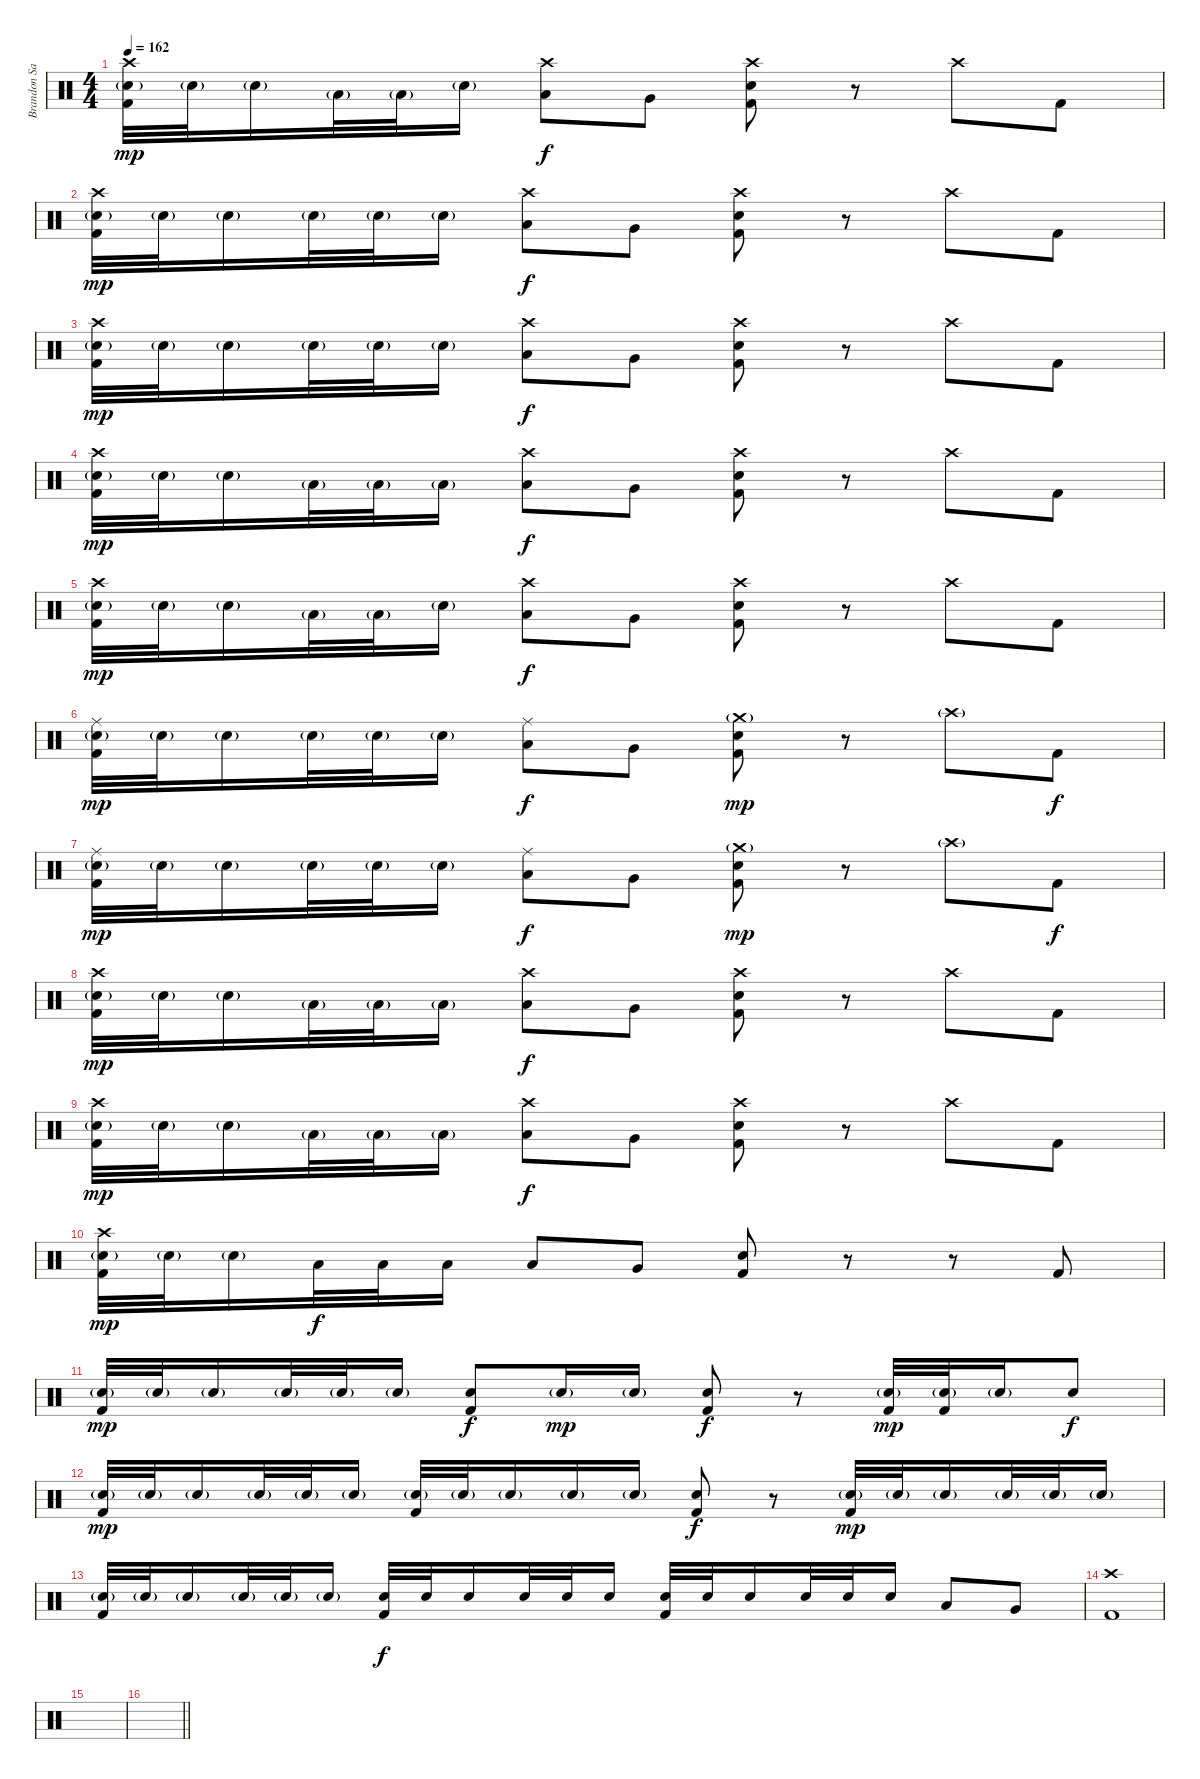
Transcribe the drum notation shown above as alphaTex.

\track ("Brandon Saller" "Brandon Sa") {instrument percussion}
\staff {score}
\articulation defaults
\ts (4 4)
\tempo 162
\clef neutral
\ks c
("Crash high (hit)" "Electric Snare (hit)"{g} "Kick (hit) 2").32{dy mp} "Electric Snare (hit)"{g}.32 "Electric Snare (hit)"{g}.16 "Low Floor Tom (hit)"{g}.32 "Low Floor Tom (hit)"{g}.32 "Snare (hit)"{g}.16 ("Crash high (hit)" "Low Tom (hit)").8{dy f} "Very Low Tom (hit)".8 ("Crash high (hit)" "Electric Snare (hit)" "Kick (hit) 2").8 r.8 "Crash high (hit)".8 "Kick (hit) 2".8 |
("Crash high (hit)" "Electric Snare (hit)"{g} "Kick (hit) 2").32{dy mp} "Electric Snare (hit)"{g}.32 "Electric Snare (hit)"{g}.16 "Electric Snare (hit)"{g}.32 "Electric Snare (hit)"{g}.32 "Electric Snare (hit)"{g}.16 ("Crash high (hit)" "Low Tom (hit)").8{dy f} "Very Low Tom (hit)".8 ("Crash high (hit)" "Electric Snare (hit)" "Kick (hit) 2").8 r.8 "Crash high (hit)".8 "Kick (hit) 2".8 |
("Crash high (hit)" "Electric Snare (hit)"{g} "Kick (hit) 2").32{dy mp} "Electric Snare (hit)"{g}.32 "Electric Snare (hit)"{g}.16 "Electric Snare (hit)"{g}.32 "Electric Snare (hit)"{g}.32 "Electric Snare (hit)"{g}.16 ("Crash high (hit)" "Low Tom (hit)").8{dy f} "Very Low Tom (hit)".8 ("Crash high (hit)" "Electric Snare (hit)" "Kick (hit) 2").8 r.8 "Crash high (hit)".8 "Kick (hit) 2".8 |
("Crash high (hit)" "Electric Snare (hit)"{g} "Kick (hit) 2").32{dy mp} "Electric Snare (hit)"{g}.32 "Electric Snare (hit)"{g}.16 "Low Floor Tom (hit)"{g}.32 "Low Floor Tom (hit)"{g}.32 "Low Floor Tom (hit)"{g}.16 ("Crash high (hit)" "Low Tom (hit)").8{dy f} "Very Low Tom (hit)".8 ("Crash high (hit)" "Electric Snare (hit)" "Kick (hit) 2").8 r.8 "Crash high (hit)".8 "Kick (hit) 2".8 |
("Crash high (hit)" "Electric Snare (hit)"{g} "Kick (hit) 2").32{dy mp} "Electric Snare (hit)"{g}.32 "Electric Snare (hit)"{g}.16 "Low Floor Tom (hit)"{g}.32 "Low Floor Tom (hit)"{g}.32 "Snare (hit)"{g}.16 ("Crash high (hit)" "Low Tom (hit)").8{dy f} "Very Low Tom (hit)".8 ("Crash high (hit)" "Electric Snare (hit)" "Kick (hit) 2").8 r.8 "Crash high (hit)".8 "Kick (hit) 2".8 |
("Ride (middle)" "Electric Snare (hit)"{g} "Kick (hit) 2").32{dy mp} "Electric Snare (hit)"{g}.32 "Electric Snare (hit)"{g}.16 "Electric Snare (hit)"{g}.32 "Electric Snare (hit)"{g}.32 "Electric Snare (hit)"{g}.16 ("Ride (middle)" "Low Tom (hit)").8{dy f} "Very Low Tom (hit)".8 ("Crash medium (hit)"{g} "Electric Snare (hit)" "Kick (hit) 2").8{dy mp} r.8 "Crash high (hit)"{g}.8 "Kick (hit) 2".8{dy f} |
("Ride (middle)" "Electric Snare (hit)"{g} "Kick (hit) 2").32{dy mp} "Electric Snare (hit)"{g}.32 "Electric Snare (hit)"{g}.16 "Electric Snare (hit)"{g}.32 "Electric Snare (hit)"{g}.32 "Electric Snare (hit)"{g}.16 ("Ride (middle)" "Low Tom (hit)").8{dy f} "Very Low Tom (hit)".8 ("Crash medium (hit)"{g} "Electric Snare (hit)" "Kick (hit) 2").8{dy mp} r.8 "Crash high (hit)"{g}.8 "Kick (hit) 2".8{dy f} |
("Crash high (hit)" "Electric Snare (hit)"{g} "Kick (hit) 2").32{dy mp} "Electric Snare (hit)"{g}.32 "Electric Snare (hit)"{g}.16 "Low Floor Tom (hit)"{g}.32 "Low Floor Tom (hit)"{g}.32 "Low Floor Tom (hit)"{g}.16 ("Crash high (hit)" "Low Tom (hit)").8{dy f} "Very Low Tom (hit)".8 ("Crash high (hit)" "Electric Snare (hit)" "Kick (hit) 2").8 r.8 "Crash high (hit)".8 "Kick (hit) 2".8 |
("Crash high (hit)" "Electric Snare (hit)"{g} "Kick (hit) 2").32{dy mp} "Electric Snare (hit)"{g}.32 "Electric Snare (hit)"{g}.16 "Low Floor Tom (hit)"{g}.32 "Low Floor Tom (hit)"{g}.32 "Low Floor Tom (hit)"{g}.16 ("Crash high (hit)" "Low Tom (hit)").8{dy f} "Very Low Tom (hit)".8 ("Crash high (hit)" "Electric Snare (hit)" "Kick (hit) 2").8 r.8 "Crash high (hit)".8 "Kick (hit) 2".8 |
("Crash high (hit)" "Electric Snare (hit)"{g} "Kick (hit) 2").32{dy mp} "Electric Snare (hit)"{g}.32 "Electric Snare (hit)"{g}.16 "Low Floor Tom (hit)".32{dy f} "Low Floor Tom (hit)".32 "Low Floor Tom (hit)".16 "Low Tom (hit)".8 "Very Low Tom (hit)".8 ("Electric Snare (hit)" "Kick (hit) 2").8 r.8 r.8 "Kick (hit) 2".8 |
("Electric Snare (hit)"{g} "Kick (hit) 2").32{dy mp} "Electric Snare (hit)"{g}.32 "Electric Snare (hit)"{g}.16 "Electric Snare (hit)"{g}.32 "Electric Snare (hit)"{g}.32 "Electric Snare (hit)"{g}.16 ("Electric Snare (hit)" "Kick (hit) 2").8{dy f} "Electric Snare (hit)"{g}.16{dy mp} "Electric Snare (hit)"{g}.16 ("Electric Snare (hit)" "Kick (hit) 2").8{dy f} r.8 ("Electric Snare (hit)"{g} "Kick (hit) 2").32{dy mp} ("Electric Snare (hit)"{g} "Kick (hit) 2").32 "Electric Snare (hit)"{g}.16 "Electric Snare (hit)".8{dy f} |
("Electric Snare (hit)"{g} "Kick (hit) 2").32{dy mp} "Electric Snare (hit)"{g}.32 "Electric Snare (hit)"{g}.16 "Electric Snare (hit)"{g}.32 "Electric Snare (hit)"{g}.32 "Electric Snare (hit)"{g}.16 ("Electric Snare (hit)"{g} "Kick (hit) 2").32 "Electric Snare (hit)"{g}.32 "Electric Snare (hit)"{g}.16 "Electric Snare (hit)"{g}.16 "Electric Snare (hit)"{g}.16 ("Electric Snare (hit)" "Kick (hit) 2").8{dy f} r.8 ("Electric Snare (hit)"{g} "Kick (hit) 2").32{dy mp} "Electric Snare (hit)"{g}.32 "Electric Snare (hit)"{g}.16 "Electric Snare (hit)"{g}.32 "Electric Snare (hit)"{g}.32 "Electric Snare (hit)"{g}.16 |
("Electric Snare (hit)"{g} "Kick (hit) 2").32 "Electric Snare (hit)"{g}.32 "Electric Snare (hit)"{g}.16 "Electric Snare (hit)"{g}.32 "Electric Snare (hit)"{g}.32 "Electric Snare (hit)"{g}.16 ("Electric Snare (hit)" "Kick (hit) 2").32{dy f} "Electric Snare (hit)".32 "Electric Snare (hit)".16 "Electric Snare (hit)".32 "Electric Snare (hit)".32 "Electric Snare (hit)".16 ("Electric Snare (hit)" "Kick (hit) 2").32 "Electric Snare (hit)".32 "Electric Snare (hit)".16 "Electric Snare (hit)".32 "Electric Snare (hit)".32 "Electric Snare (hit)".16 "Low Tom (hit)".8 "Very Low Tom (hit)".8 |
("Crash high (hit)" "Kick (hit) 2").1 |
|
\barLineRight lightlight
